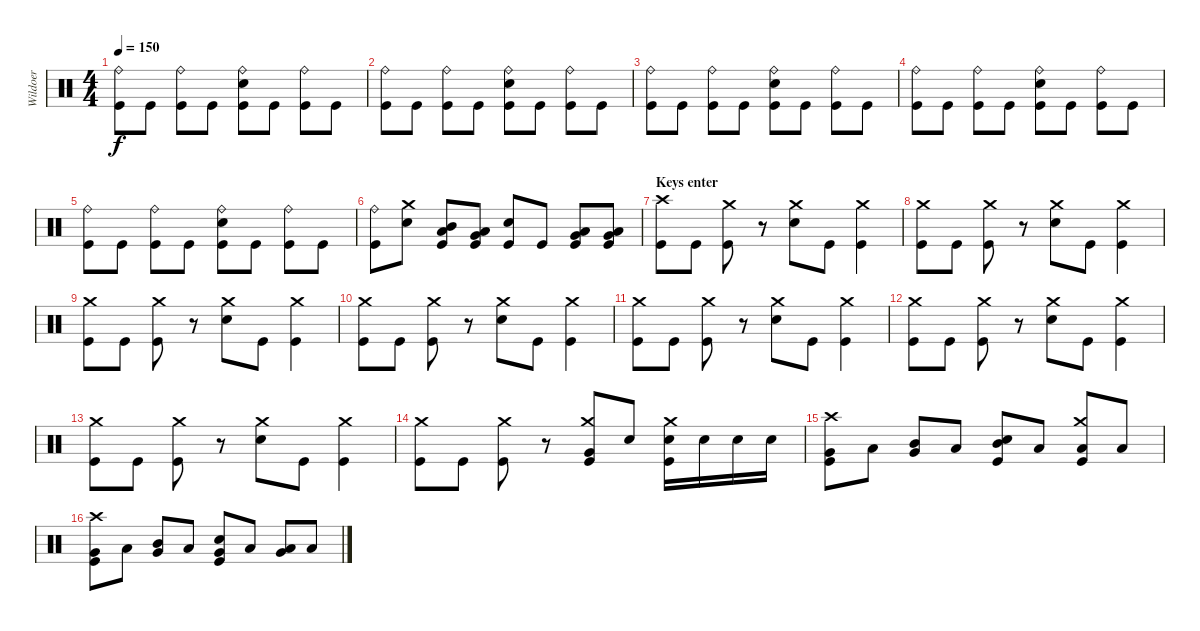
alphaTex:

\track ("Wildoer" "Wildoer") {instrument percussion}
\staff {score}
\articulation defaults
\ts (4 4)
\tempo 150
\clef neutral
\ks c
("Ride (bell)" "Kick (hit)").8{dy f} "Kick (hit)".8 ("Ride (bell)" "Kick (hit)").8 "Kick (hit)".8 ("Ride (bell)" "Electric Snare (hit)" "Kick (hit)").8 "Kick (hit)".8 ("Ride (bell)" "Kick (hit)").8 "Kick (hit)".8 |
("Ride (bell)" "Kick (hit)").8 "Kick (hit)".8 ("Ride (bell)" "Kick (hit)").8 "Kick (hit)".8 ("Ride (bell)" "Electric Snare (hit)" "Kick (hit)").8 "Kick (hit)".8 ("Ride (bell)" "Kick (hit)").8 "Kick (hit)".8 |
("Ride (bell)" "Kick (hit)").8 "Kick (hit)".8 ("Ride (bell)" "Kick (hit)").8 "Kick (hit)".8 ("Ride (bell)" "Electric Snare (hit)" "Kick (hit)").8 "Kick (hit)".8 ("Ride (bell)" "Kick (hit)").8 "Kick (hit)".8 |
("Ride (bell)" "Kick (hit)").8 "Kick (hit)".8 ("Ride (bell)" "Kick (hit)").8 "Kick (hit)".8 ("Ride (bell)" "Electric Snare (hit)" "Kick (hit)").8 "Kick (hit)".8 ("Ride (bell)" "Kick (hit)").8 "Kick (hit)".8 |
("Ride (bell)" "Kick (hit)").8 "Kick (hit)".8 ("Ride (bell)" "Kick (hit)").8 "Kick (hit)".8 ("Ride (bell)" "Electric Snare (hit)" "Kick (hit)").8 "Kick (hit)".8 ("Ride (bell)" "Kick (hit)").8 "Kick (hit)".8 |
("Ride (bell)" "Kick (hit)").8 ("Crash medium (hit)" "Electric Snare (hit)").8 ("Mid Tom (hit)" "Low Tom (hit)" "Kick (hit)").8 ("Low Tom (hit)" "Very Low Tom (hit)" "Kick (hit)").8 ("Electric Snare (hit)" "Kick (hit)").8 "Kick (hit)".8 ("Low Tom (hit)" "Very Low Tom (hit)" "Kick (hit)").8 ("Very Low Tom (hit)" "Low Floor Tom (hit)" "Kick (hit)").8 |
\section ("" "Keys enter")
("Crash high (hit)" "Kick (hit)").8 "Kick (hit)".8 ("Crash medium (hit)" "Kick (hit)").8 r.8 ("Crash medium (hit)" "Electric Snare (hit)").8 "Kick (hit)".8 ("Crash medium (hit)" "Kick (hit)").4 |
("Crash medium (hit)" "Kick (hit)").8 "Kick (hit)".8 ("Crash medium (hit)" "Kick (hit)").8 r.8 ("Crash medium (hit)" "Electric Snare (hit)").8 "Kick (hit)".8 ("Crash medium (hit)" "Kick (hit)").4 |
("Crash medium (hit)" "Kick (hit)").8 "Kick (hit)".8 ("Crash medium (hit)" "Kick (hit)").8 r.8 ("Crash medium (hit)" "Electric Snare (hit)").8 "Kick (hit)".8 ("Crash medium (hit)" "Kick (hit)").4 |
("Crash medium (hit)" "Kick (hit)").8 "Kick (hit)".8 ("Crash medium (hit)" "Kick (hit)").8 r.8 ("Crash medium (hit)" "Electric Snare (hit)").8 "Kick (hit)".8 ("Crash medium (hit)" "Kick (hit)").4 |
("Crash medium (hit)" "Kick (hit)").8 "Kick (hit)".8 ("Crash medium (hit)" "Kick (hit)").8 r.8 ("Crash medium (hit)" "Electric Snare (hit)").8 "Kick (hit)".8 ("Crash medium (hit)" "Kick (hit)").4 |
("Crash medium (hit)" "Kick (hit)").8 "Kick (hit)".8 ("Crash medium (hit)" "Kick (hit)").8 r.8 ("Crash medium (hit)" "Electric Snare (hit)").8 "Kick (hit)".8 ("Crash medium (hit)" "Kick (hit)").4 |
("Crash medium (hit)" "Kick (hit)").8 "Kick (hit)".8 ("Crash medium (hit)" "Kick (hit)").8 r.8 ("Crash medium (hit)" "Electric Snare (hit)").8 "Kick (hit)".8 ("Crash medium (hit)" "Kick (hit)").4 |
("Crash medium (hit)" "Kick (hit)").8 "Kick (hit)".8 ("Crash medium (hit)" "Kick (hit)").8 r.8 ("Crash medium (hit)" "Very Low Tom (hit)" "Kick (hit)").8 "Electric Snare (hit)".8 ("Crash medium (hit)" "Electric Snare (hit)" "Kick (hit)").16 "Electric Snare (hit)".16 "Electric Snare (hit)".16 "Electric Snare (hit)".16 |
("Crash high (hit)" "Very Low Tom (hit)" "Kick (hit)").8 "Low Floor Tom (hit)".8 ("Mid Tom (hit)" "Very Low Tom (hit)").8 "Low Floor Tom (hit)".8 ("Electric Snare (hit)" "Mid Tom (hit)" "Kick (hit)").8 "Low Floor Tom (hit)".8 ("Crash medium (hit)" "Low Floor Tom (hit)" "Kick (hit)").8 "Low Floor Tom (hit)".8 |
("Crash high (hit)" "Very Low Tom (hit)" "Kick (hit)").8 "Low Floor Tom (hit)".8 ("Mid Tom (hit)" "Very Low Tom (hit)").8 "Low Floor Tom (hit)".8 ("Electric Snare (hit)" "Very Low Tom (hit)" "Kick (hit)").8 "Low Floor Tom (hit)".8 ("Low Tom (hit)" "Very Low Tom (hit)").8 "Low Floor Tom (hit)".8
